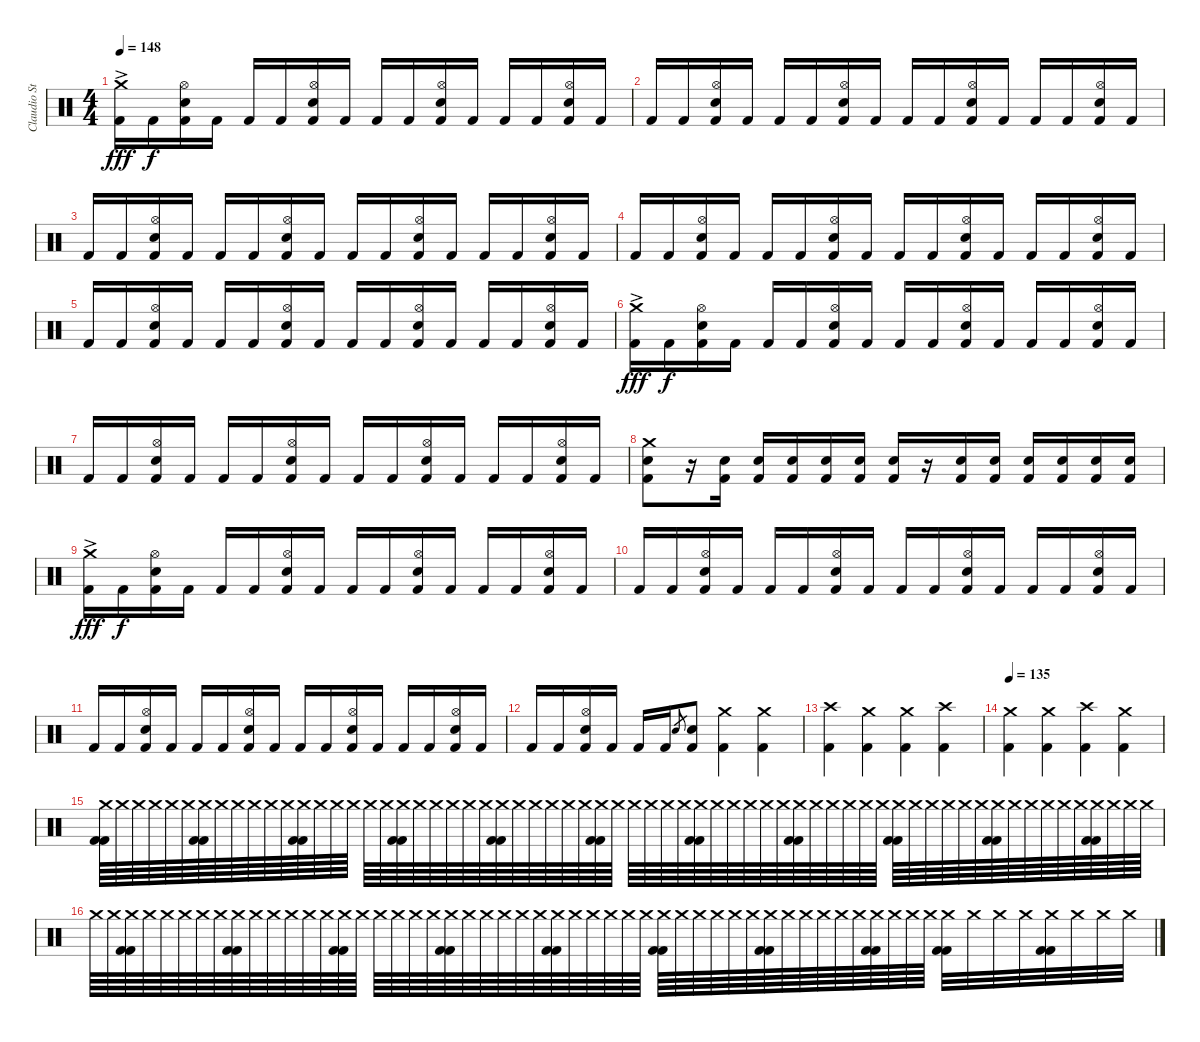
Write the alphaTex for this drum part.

\track ("Claudio Strunz" "Claudio St") {instrument percussion}
\staff {score}
\articulation defaults
\ts (4 4)
\tempo 148
\clef neutral
\ks c
("Crash medium (hit)"{ac} "Kick (hit) 2").16{dy fff} "Kick (hit) 2".16{dy f} ("Hi-Hat (open)" "Electric Snare (hit)" "Kick (hit) 2").16 "Kick (hit) 2".16 "Kick (hit) 2".16 "Kick (hit) 2".16 ("Hi-Hat (open)" "Electric Snare (hit)" "Kick (hit) 2").16 "Kick (hit) 2".16 "Kick (hit) 2".16 "Kick (hit) 2".16 ("Hi-Hat (open)" "Electric Snare (hit)" "Kick (hit) 2").16 "Kick (hit) 2".16 "Kick (hit) 2".16 "Kick (hit) 2".16 ("Hi-Hat (open)" "Electric Snare (hit)" "Kick (hit) 2").16 "Kick (hit) 2".16 |
"Kick (hit) 2".16 "Kick (hit) 2".16 ("Hi-Hat (open)" "Electric Snare (hit)" "Kick (hit) 2").16 "Kick (hit) 2".16 "Kick (hit) 2".16 "Kick (hit) 2".16 ("Hi-Hat (open)" "Electric Snare (hit)" "Kick (hit) 2").16 "Kick (hit) 2".16 "Kick (hit) 2".16 "Kick (hit) 2".16 ("Hi-Hat (open)" "Electric Snare (hit)" "Kick (hit) 2").16 "Kick (hit) 2".16 "Kick (hit) 2".16 "Kick (hit) 2".16 ("Hi-Hat (open)" "Electric Snare (hit)" "Kick (hit) 2").16 "Kick (hit) 2".16 |
"Kick (hit) 2".16 "Kick (hit) 2".16 ("Hi-Hat (open)" "Electric Snare (hit)" "Kick (hit) 2").16 "Kick (hit) 2".16 "Kick (hit) 2".16 "Kick (hit) 2".16 ("Hi-Hat (open)" "Electric Snare (hit)" "Kick (hit) 2").16 "Kick (hit) 2".16 "Kick (hit) 2".16 "Kick (hit) 2".16 ("Hi-Hat (open)" "Electric Snare (hit)" "Kick (hit) 2").16 "Kick (hit) 2".16 "Kick (hit) 2".16 "Kick (hit) 2".16 ("Hi-Hat (open)" "Electric Snare (hit)" "Kick (hit) 2").16 "Kick (hit) 2".16 |
"Kick (hit) 2".16 "Kick (hit) 2".16 ("Hi-Hat (open)" "Electric Snare (hit)" "Kick (hit) 2").16 "Kick (hit) 2".16 "Kick (hit) 2".16 "Kick (hit) 2".16 ("Hi-Hat (open)" "Electric Snare (hit)" "Kick (hit) 2").16 "Kick (hit) 2".16 "Kick (hit) 2".16 "Kick (hit) 2".16 ("Hi-Hat (open)" "Electric Snare (hit)" "Kick (hit) 2").16 "Kick (hit) 2".16 "Kick (hit) 2".16 "Kick (hit) 2".16 ("Hi-Hat (open)" "Electric Snare (hit)" "Kick (hit) 2").16 "Kick (hit) 2".16 |
"Kick (hit) 2".16 "Kick (hit) 2".16 ("Hi-Hat (open)" "Electric Snare (hit)" "Kick (hit) 2").16 "Kick (hit) 2".16 "Kick (hit) 2".16 "Kick (hit) 2".16 ("Hi-Hat (open)" "Electric Snare (hit)" "Kick (hit) 2").16 "Kick (hit) 2".16 "Kick (hit) 2".16 "Kick (hit) 2".16 ("Hi-Hat (open)" "Electric Snare (hit)" "Kick (hit) 2").16 "Kick (hit) 2".16 "Kick (hit) 2".16 "Kick (hit) 2".16 ("Hi-Hat (open)" "Electric Snare (hit)" "Kick (hit) 2").16 "Kick (hit) 2".16 |
("Crash medium (hit)"{ac} "Kick (hit) 2").16{dy fff} "Kick (hit) 2".16{dy f} ("Hi-Hat (open)" "Electric Snare (hit)" "Kick (hit) 2").16 "Kick (hit) 2".16 "Kick (hit) 2".16 "Kick (hit) 2".16 ("Hi-Hat (open)" "Electric Snare (hit)" "Kick (hit) 2").16 "Kick (hit) 2".16 "Kick (hit) 2".16 "Kick (hit) 2".16 ("Hi-Hat (open)" "Electric Snare (hit)" "Kick (hit) 2").16 "Kick (hit) 2".16 "Kick (hit) 2".16 "Kick (hit) 2".16 ("Hi-Hat (open)" "Electric Snare (hit)" "Kick (hit) 2").16 "Kick (hit) 2".16 |
"Kick (hit) 2".16 "Kick (hit) 2".16 ("Hi-Hat (open)" "Electric Snare (hit)" "Kick (hit) 2").16 "Kick (hit) 2".16 "Kick (hit) 2".16 "Kick (hit) 2".16 ("Hi-Hat (open)" "Electric Snare (hit)" "Kick (hit) 2").16 "Kick (hit) 2".16 "Kick (hit) 2".16 "Kick (hit) 2".16 ("Hi-Hat (open)" "Electric Snare (hit)" "Kick (hit) 2").16 "Kick (hit) 2".16 "Kick (hit) 2".16 "Kick (hit) 2".16 ("Hi-Hat (open)" "Electric Snare (hit)" "Kick (hit) 2").16 "Kick (hit) 2".16 |
("Crash medium (hit)" "Electric Snare (hit)" "Kick (hit) 2").8 r.16 ("Electric Snare (hit)" "Kick (hit) 2").16 ("Electric Snare (hit)" "Kick (hit) 2").16 ("Electric Snare (hit)" "Kick (hit) 2").16 ("Electric Snare (hit)" "Kick (hit) 2").16 ("Electric Snare (hit)" "Kick (hit) 2").16 ("Electric Snare (hit)" "Kick (hit) 2").16 r.16 ("Electric Snare (hit)" "Kick (hit) 2").16 ("Electric Snare (hit)" "Kick (hit) 2").16 ("Electric Snare (hit)" "Kick (hit) 2").16 ("Electric Snare (hit)" "Kick (hit) 2").16 ("Electric Snare (hit)" "Kick (hit) 2").16 ("Electric Snare (hit)" "Kick (hit) 2").16 |
("Crash medium (hit)"{ac} "Kick (hit) 2").16{dy fff} "Kick (hit) 2".16{dy f} ("Hi-Hat (open)" "Electric Snare (hit)" "Kick (hit) 2").16 "Kick (hit) 2".16 "Kick (hit) 2".16 "Kick (hit) 2".16 ("Hi-Hat (open)" "Electric Snare (hit)" "Kick (hit) 2").16 "Kick (hit) 2".16 "Kick (hit) 2".16 "Kick (hit) 2".16 ("Hi-Hat (open)" "Electric Snare (hit)" "Kick (hit) 2").16 "Kick (hit) 2".16 "Kick (hit) 2".16 "Kick (hit) 2".16 ("Hi-Hat (open)" "Electric Snare (hit)" "Kick (hit) 2").16 "Kick (hit) 2".16 |
"Kick (hit) 2".16 "Kick (hit) 2".16 ("Hi-Hat (open)" "Electric Snare (hit)" "Kick (hit) 2").16 "Kick (hit) 2".16 "Kick (hit) 2".16 "Kick (hit) 2".16 ("Hi-Hat (open)" "Electric Snare (hit)" "Kick (hit) 2").16 "Kick (hit) 2".16 "Kick (hit) 2".16 "Kick (hit) 2".16 ("Hi-Hat (open)" "Electric Snare (hit)" "Kick (hit) 2").16 "Kick (hit) 2".16 "Kick (hit) 2".16 "Kick (hit) 2".16 ("Hi-Hat (open)" "Electric Snare (hit)" "Kick (hit) 2").16 "Kick (hit) 2".16 |
"Kick (hit) 2".16 "Kick (hit) 2".16 ("Hi-Hat (open)" "Electric Snare (hit)" "Kick (hit) 2").16 "Kick (hit) 2".16 "Kick (hit) 2".16 "Kick (hit) 2".16 ("Hi-Hat (open)" "Electric Snare (hit)" "Kick (hit) 2").16 "Kick (hit) 2".16 "Kick (hit) 2".16 "Kick (hit) 2".16 ("Hi-Hat (open)" "Electric Snare (hit)" "Kick (hit) 2").16 "Kick (hit) 2".16 "Kick (hit) 2".16 "Kick (hit) 2".16 ("Hi-Hat (open)" "Electric Snare (hit)" "Kick (hit) 2").16 "Kick (hit) 2".16 |
"Kick (hit) 2".16 "Kick (hit) 2".16 ("Hi-Hat (open)" "Electric Snare (hit)" "Kick (hit) 2").16 "Kick (hit) 2".16 "Kick (hit) 2".16 "Kick (hit) 2".16 "Electric Snare (hit)".8{gr} ("Electric Snare (hit)" "Kick (hit) 2").8 ("Crash medium (hit)" "Kick (hit) 2").4 ("Crash medium (hit)" "Kick (hit) 2").4 |
("Crash high (hit)" "Kick (hit) 2").4 ("Crash medium (hit)" "Kick (hit) 2").4 ("Crash medium (hit)" "Kick (hit) 2").4 ("Crash high (hit)" "Kick (hit) 2").4 |
\tempo 135
("Crash medium (hit)" "Kick (hit) 2").4 ("Crash medium (hit)" "Kick (hit) 2").4 ("Crash high (hit)" "Kick (hit) 2").4 ("Crash medium (hit)" "Kick (hit) 2").4 |
("Crash medium (hit)" "Kick (hit) 2" "Kick (hit) 2").64{volume 16} "Crash medium (hit)".64 "Crash medium (hit)".64 "Crash medium (hit)".64 "Crash medium (hit)".64 "Crash medium (hit)".64 ("Crash medium (hit)" "Kick (hit) 2" "Kick (hit) 2").64 "Crash medium (hit)".64 "Crash medium (hit)".64 "Crash medium (hit)".64 "Crash medium (hit)".64 "Crash medium (hit)".64 ("Crash medium (hit)" "Kick (hit) 2" "Kick (hit) 2").64 "Crash medium (hit)".64 "Crash medium (hit)".64 "Crash medium (hit)".64 "Crash medium (hit)".64 "Crash medium (hit)".64 ("Crash medium (hit)" "Kick (hit) 2" "Kick (hit) 2").64 "Crash medium (hit)".64 "Crash medium (hit)".64 "Crash medium (hit)".64 "Crash medium (hit)".64 "Crash medium (hit)".64 ("Crash medium (hit)" "Kick (hit) 2" "Kick (hit) 2").64 "Crash medium (hit)".64 "Crash medium (hit)".64 "Crash medium (hit)".64 "Crash medium (hit)".64 "Crash medium (hit)".64 ("Crash medium (hit)" "Kick (hit) 2" "Kick (hit) 2").64 "Crash medium (hit)".64 "Crash medium (hit)".64 "Crash medium (hit)".64 "Crash medium (hit)".64 "Crash medium (hit)".64 ("Crash medium (hit)" "Kick (hit) 2" "Kick (hit) 2").64 "Crash medium (hit)".64 "Crash medium (hit)".64 "Crash medium (hit)".64 "Crash medium (hit)".64 "Crash medium (hit)".64 ("Crash medium (hit)" "Kick (hit) 2" "Kick (hit) 2").64 "Crash medium (hit)".64 "Crash medium (hit)".64 "Crash medium (hit)".64 "Crash medium (hit)".64 "Crash medium (hit)".64 ("Crash medium (hit)" "Kick (hit) 2" "Kick (hit) 2").64 "Crash medium (hit)".64 "Crash medium (hit)".64 "Crash medium (hit)".64 "Crash medium (hit)".64 "Crash medium (hit)".64 ("Crash medium (hit)" "Kick (hit) 2" "Kick (hit) 2").64 "Crash medium (hit)".64 "Crash medium (hit)".64 "Crash medium (hit)".64 "Crash medium (hit)".64 "Crash medium (hit)".64 ("Crash medium (hit)" "Kick (hit) 2" "Kick (hit) 2").64 "Crash medium (hit)".64 "Crash medium (hit)".64 "Crash medium (hit)".64 |
"Crash medium (hit)".64 "Crash medium (hit)".64 ("Crash medium (hit)" "Kick (hit) 2" "Kick (hit) 2").64 "Crash medium (hit)".64 "Crash medium (hit)".64 "Crash medium (hit)".64 "Crash medium (hit)".64 "Crash medium (hit)".64 ("Crash medium (hit)" "Kick (hit) 2" "Kick (hit) 2").64 "Crash medium (hit)".64 "Crash medium (hit)".64 "Crash medium (hit)".64 "Crash medium (hit)".64 "Crash medium (hit)".64 ("Crash medium (hit)" "Kick (hit) 2" "Kick (hit) 2").64 "Crash medium (hit)".64 "Crash medium (hit)".64 "Crash medium (hit)".64 "Crash medium (hit)".64 "Crash medium (hit)".64 ("Crash medium (hit)" "Kick (hit) 2" "Kick (hit) 2").64 "Crash medium (hit)".64 "Crash medium (hit)".64 "Crash medium (hit)".64 "Crash medium (hit)".64 "Crash medium (hit)".64 ("Crash medium (hit)" "Kick (hit) 2" "Kick (hit) 2").64 "Crash medium (hit)".64 "Crash medium (hit)".64 "Crash medium (hit)".64 "Crash medium (hit)".64 "Crash medium (hit)".64 ("Crash medium (hit)" "Kick (hit) 2" "Kick (hit) 2").64 "Crash medium (hit)".64 "Crash medium (hit)".64 "Crash medium (hit)".64 "Crash medium (hit)".64 "Crash medium (hit)".64 ("Crash medium (hit)" "Kick (hit) 2" "Kick (hit) 2").64 "Crash medium (hit)".64 "Crash medium (hit)".64 "Crash medium (hit)".64 "Crash medium (hit)".64 "Crash medium (hit)".64 ("Crash medium (hit)" "Kick (hit) 2" "Kick (hit) 2").64 "Crash medium (hit)".64 "Crash medium (hit)".64 "Crash medium (hit)".64 ("Crash medium (hit)" "Kick (hit) 2" "Kick (hit) 2").32 "Crash medium (hit)".32 "Crash medium (hit)".32 "Crash medium (hit)".32 ("Crash medium (hit)" "Kick (hit) 2" "Kick (hit) 2").32 "Crash medium (hit)".32 "Crash medium (hit)".32 "Crash medium (hit)".32
